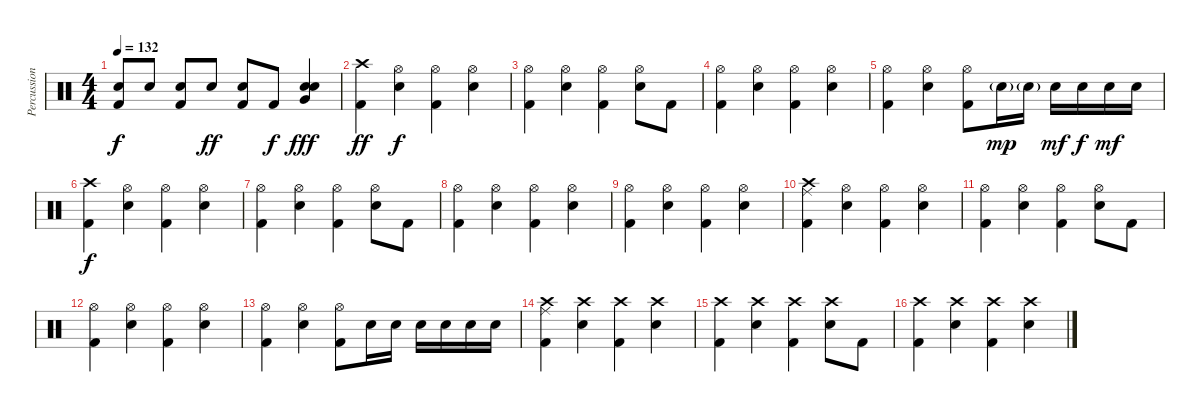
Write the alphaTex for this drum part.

\track ("Percussion" "Percussion") {instrument percussion}
\staff {score}
\articulation defaults
\ts (4 4)
\tempo 132
\clef neutral
\ks c
("Snare (hit) 2" "Kick (hit) 2").8{dy f} "Snare (hit) 2".8 ("Snare (hit) 2" "Kick (hit) 2").8 "Snare (hit) 2".8{dy ff} ("Snare (hit) 2" "Kick (hit) 2").8 "Kick (hit) 2".8{dy f} ("Snare (hit) 2" "Very Low Tom (hit)" "Snare (hit) 2").4{dy fff} |
("Crash high (hit)" "Kick (hit) 2").4{dy ff} ("Hi-Hat (open)" "Snare (hit) 2").4{dy f} ("Hi-Hat (open)" "Kick (hit) 2").4 ("Hi-Hat (open)" "Snare (hit) 2").4 |
("Hi-Hat (open)" "Kick (hit) 2").4 ("Hi-Hat (open)" "Snare (hit) 2").4 ("Hi-Hat (open)" "Kick (hit) 2").4 ("Hi-Hat (open)" "Snare (hit) 2").8 "Kick (hit) 2".8 |
("Hi-Hat (open)" "Kick (hit) 2").4 ("Hi-Hat (open)" "Snare (hit) 2").4 ("Hi-Hat (open)" "Kick (hit) 2").4 ("Hi-Hat (open)" "Snare (hit) 2").4 |
("Hi-Hat (open)" "Kick (hit) 2").4 ("Snare (hit) 2" "Hi-Hat (open)").4 ("Hi-Hat (open)" "Kick (hit) 2").8 "Snare (hit) 2"{g}.16{dy mp} "Snare (hit) 2"{g}.16 "Snare (hit) 2".16{dy mf} "Snare (hit) 2".16{dy f} "Snare (hit) 2".16{dy mf} "Snare (hit) 2".16 |
("Crash high (hit)" "Kick (hit) 2").4{dy f} ("Hi-Hat (open)" "Snare (hit) 2").4 ("Hi-Hat (open)" "Kick (hit) 2").4 ("Hi-Hat (open)" "Snare (hit) 2").4 |
("Hi-Hat (open)" "Kick (hit) 2").4 ("Hi-Hat (open)" "Snare (hit) 2").4 ("Hi-Hat (open)" "Kick (hit) 2").4 ("Hi-Hat (open)" "Snare (hit) 2").8 "Kick (hit) 2".8 |
("Hi-Hat (open)" "Kick (hit) 2").4 ("Hi-Hat (open)" "Snare (hit) 2").4 ("Hi-Hat (open)" "Kick (hit) 2").4 ("Hi-Hat (open)" "Snare (hit) 2").4 |
("Hi-Hat (open)" "Kick (hit) 2").4 ("Hi-Hat (open)" "Snare (hit) 2").4 ("Hi-Hat (open)" "Kick (hit) 2").4 ("Hi-Hat (open)" "Snare (hit) 2").4 |
("Ride (middle)" "Crash high (hit)" "Kick (hit) 2").4 ("Hi-Hat (open)" "Snare (hit) 2").4 ("Hi-Hat (open)" "Kick (hit) 2").4 ("Hi-Hat (open)" "Snare (hit) 2").4 |
("Hi-Hat (open)" "Kick (hit) 2").4 ("Hi-Hat (open)" "Snare (hit) 2").4 ("Hi-Hat (open)" "Kick (hit) 2").4 ("Hi-Hat (open)" "Snare (hit) 2").8 "Kick (hit) 2".8 |
("Hi-Hat (open)" "Kick (hit) 2").4 ("Hi-Hat (open)" "Snare (hit) 2").4 ("Hi-Hat (open)" "Kick (hit) 2").4 ("Hi-Hat (open)" "Snare (hit) 2").4 |
("Hi-Hat (open)" "Kick (hit) 2").4 ("Hi-Hat (open)" "Snare (hit) 2").4 ("Hi-Hat (open)" "Kick (hit) 2").8 "Snare (hit) 2".16 "Snare (hit) 2".16 "Snare (hit) 2".16 "Snare (hit) 2".16 "Snare (hit) 2".16 "Snare (hit) 2".16 |
("Ride (middle)" "Crash high (hit)" "Kick (hit) 2").4 ("Crash high (hit)" "Snare (hit) 2").4 ("Crash high (hit)" "Kick (hit) 2").4 ("Crash high (hit)" "Snare (hit) 2").4 |
("Crash high (hit)" "Kick (hit) 2").4 ("Crash high (hit)" "Snare (hit) 2").4 ("Crash high (hit)" "Kick (hit) 2").4 ("Crash high (hit)" "Snare (hit) 2").8 "Kick (hit) 2".8 |
("Crash high (hit)" "Kick (hit) 2").4 ("Crash high (hit)" "Snare (hit) 2").4 ("Crash high (hit)" "Kick (hit) 2").4 ("Crash high (hit)" "Snare (hit) 2").4
